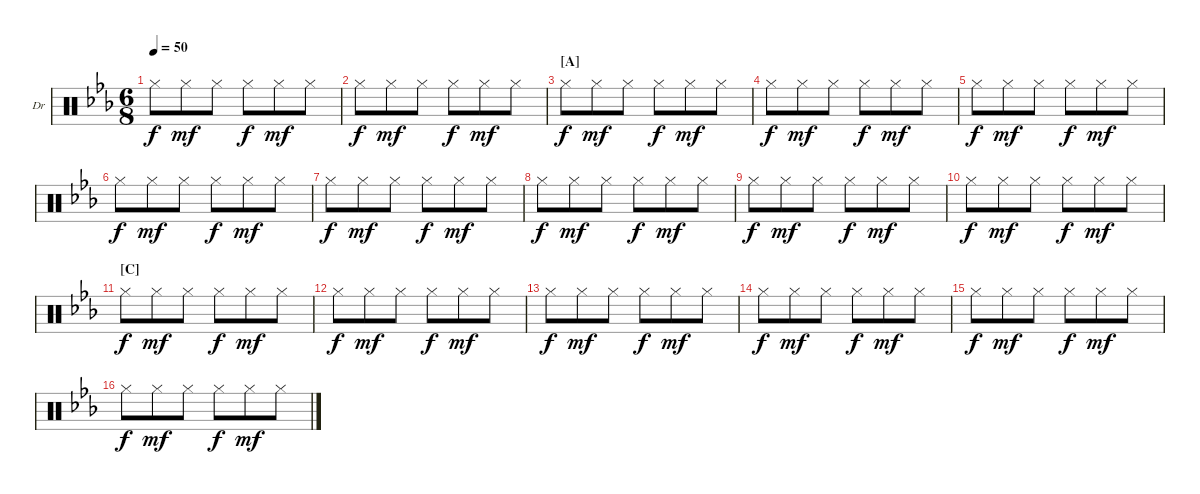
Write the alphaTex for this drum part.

\defaultSystemsLayout 4
\bracketExtendMode nobrackets
\firstSystemTrackNameOrientation horizontal
\otherSystemsTrackNameOrientation horizontal
\chordDiagramsInScore
\track ("Drums" "Dr") {instrument percussion}
\staff {score}
\articulation defaults
\ts (6 8)
\tempo 50
\clef neutral
\ks eb "Hi-Hat (closed)".8{dy f} "Hi-Hat (closed)".8{dy mf} "Hi-Hat (closed)".8 "Hi-Hat (closed)".8{dy f} "Hi-Hat (closed)".8{dy mf} "Hi-Hat (closed)".8
|
"Hi-Hat (closed)".8{dy f} "Hi-Hat (closed)".8{dy mf} "Hi-Hat (closed)".8 "Hi-Hat (closed)".8{dy f} "Hi-Hat (closed)".8{dy mf} "Hi-Hat (closed)".8 |
\section ("A" "")
"Hi-Hat (closed)".8{dy f} "Hi-Hat (closed)".8{dy mf} "Hi-Hat (closed)".8 "Hi-Hat (closed)".8{dy f} "Hi-Hat (closed)".8{dy mf} "Hi-Hat (closed)".8 |
"Hi-Hat (closed)".8{dy f} "Hi-Hat (closed)".8{dy mf} "Hi-Hat (closed)".8 "Hi-Hat (closed)".8{dy f} "Hi-Hat (closed)".8{dy mf} "Hi-Hat (closed)".8 |
"Hi-Hat (closed)".8{dy f} "Hi-Hat (closed)".8{dy mf} "Hi-Hat (closed)".8 "Hi-Hat (closed)".8{dy f} "Hi-Hat (closed)".8{dy mf} "Hi-Hat (closed)".8 |
"Hi-Hat (closed)".8{dy f} "Hi-Hat (closed)".8{dy mf} "Hi-Hat (closed)".8 "Hi-Hat (closed)".8{dy f} "Hi-Hat (closed)".8{dy mf} "Hi-Hat (closed)".8 |
"Hi-Hat (closed)".8{dy f} "Hi-Hat (closed)".8{dy mf} "Hi-Hat (closed)".8 "Hi-Hat (closed)".8{dy f} "Hi-Hat (closed)".8{dy mf} "Hi-Hat (closed)".8 |
"Hi-Hat (closed)".8{dy f} "Hi-Hat (closed)".8{dy mf} "Hi-Hat (closed)".8 "Hi-Hat (closed)".8{dy f} "Hi-Hat (closed)".8{dy mf} "Hi-Hat (closed)".8 |
"Hi-Hat (closed)".8{dy f} "Hi-Hat (closed)".8{dy mf} "Hi-Hat (closed)".8 "Hi-Hat (closed)".8{dy f} "Hi-Hat (closed)".8{dy mf} "Hi-Hat (closed)".8 |
"Hi-Hat (closed)".8{dy f} "Hi-Hat (closed)".8{dy mf} "Hi-Hat (closed)".8 "Hi-Hat (closed)".8{dy f} "Hi-Hat (closed)".8{dy mf} "Hi-Hat (closed)".8 |
\section ("C" "")
"Hi-Hat (closed)".8{dy f} "Hi-Hat (closed)".8{dy mf} "Hi-Hat (closed)".8 "Hi-Hat (closed)".8{dy f} "Hi-Hat (closed)".8{dy mf} "Hi-Hat (closed)".8 |
"Hi-Hat (closed)".8{dy f} "Hi-Hat (closed)".8{dy mf} "Hi-Hat (closed)".8 "Hi-Hat (closed)".8{dy f} "Hi-Hat (closed)".8{dy mf} "Hi-Hat (closed)".8 |
"Hi-Hat (closed)".8{dy f} "Hi-Hat (closed)".8{dy mf} "Hi-Hat (closed)".8 "Hi-Hat (closed)".8{dy f} "Hi-Hat (closed)".8{dy mf} "Hi-Hat (closed)".8 |
"Hi-Hat (closed)".8{dy f} "Hi-Hat (closed)".8{dy mf} "Hi-Hat (closed)".8 "Hi-Hat (closed)".8{dy f} "Hi-Hat (closed)".8{dy mf} "Hi-Hat (closed)".8 |
"Hi-Hat (closed)".8{dy f} "Hi-Hat (closed)".8{dy mf} "Hi-Hat (closed)".8 "Hi-Hat (closed)".8{dy f} "Hi-Hat (closed)".8{dy mf} "Hi-Hat (closed)".8 |
"Hi-Hat (closed)".8{dy f} "Hi-Hat (closed)".8{dy mf} "Hi-Hat (closed)".8 "Hi-Hat (closed)".8{dy f} "Hi-Hat (closed)".8{dy mf} "Hi-Hat (closed)".8
